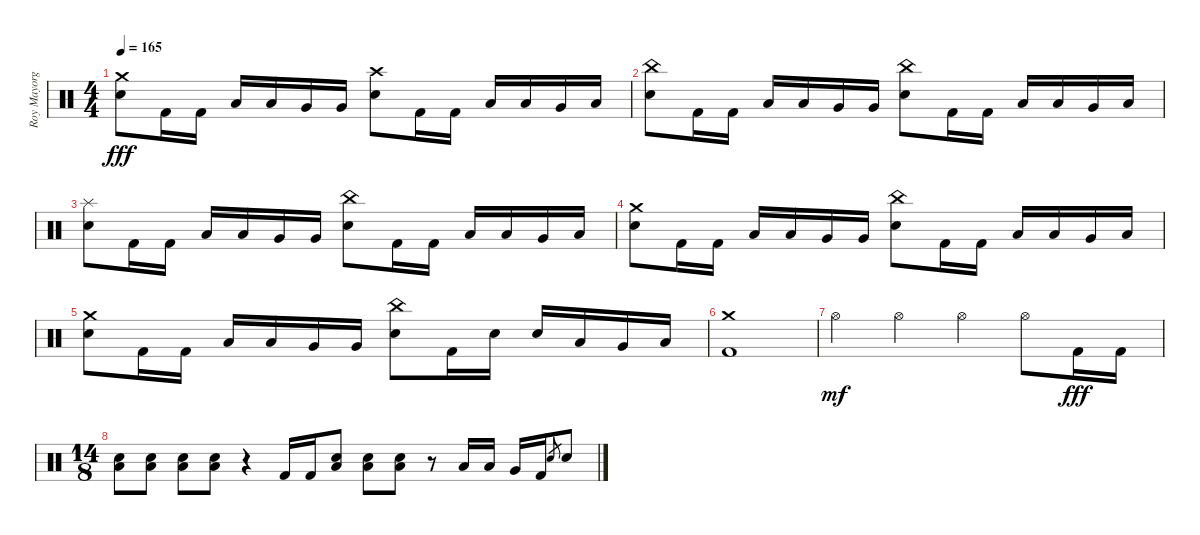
\track ("Roy Mayorga" "Roy Mayorg") {instrument percussion}
\staff {score}
\articulation defaults
\ts (4 4)
\tempo 165
\clef neutral
\ks c
("Crash medium (hit)" "Electric Snare (hit)").8{dy fff} "Kick (hit) 2".16 "Kick (hit) 2".16 "Low Tom (hit)".16 "Low Tom (hit)".16 "Very Low Tom (hit)".16 "Very Low Tom (hit)".16 ("Crash high (hit)" "Electric Snare (hit)").8 "Kick (hit) 2".16 "Kick (hit) 2".16 "Low Tom (hit)".16 "Low Tom (hit)".16 "Very Low Tom (hit)".16 "Low Floor Tom (hit)".16 |
("China (hit)" "Electric Snare (hit)").8 "Kick (hit) 2".16 "Kick (hit) 2".16 "Low Tom (hit)".16 "Low Tom (hit)".16 "Very Low Tom (hit)".16 "Very Low Tom (hit)".16 ("China (hit)" "Electric Snare (hit)").8 "Kick (hit) 2".16 "Kick (hit) 2".16 "Low Tom (hit)".16 "Low Tom (hit)".16 "Very Low Tom (hit)".16 "Low Floor Tom (hit)".16 |
("Splash (hit)" "Electric Snare (hit)").8 "Kick (hit) 2".16 "Kick (hit) 2".16 "Low Tom (hit)".16 "Low Tom (hit)".16 "Very Low Tom (hit)".16 "Very Low Tom (hit)".16 ("China (hit)" "Electric Snare (hit)").8 "Kick (hit) 2".16 "Kick (hit) 2".16 "Low Tom (hit)".16 "Low Tom (hit)".16 "Very Low Tom (hit)".16 "Low Floor Tom (hit)".16 |
("Crash medium (hit)" "Electric Snare (hit)").8 "Kick (hit) 2".16 "Kick (hit) 2".16 "Low Tom (hit)".16 "Low Tom (hit)".16 "Very Low Tom (hit)".16 "Very Low Tom (hit)".16 ("China (hit)" "Electric Snare (hit)").8 "Kick (hit) 2".16 "Kick (hit) 2".16 "Low Tom (hit)".16 "Low Tom (hit)".16 "Very Low Tom (hit)".16 "Low Floor Tom (hit)".16 |
("Crash medium (hit)" "Electric Snare (hit)").8 "Kick (hit) 2".16 "Kick (hit) 2".16 "Low Tom (hit)".16 "Low Tom (hit)".16 "Very Low Tom (hit)".16 "Very Low Tom (hit)".16 ("China (hit)" "Electric Snare (hit)").8 "Kick (hit) 2".16 "Electric Snare (hit)".16 "Electric Snare (hit)".16 "Low Tom (hit)".16 "Very Low Tom (hit)".16 "Low Floor Tom (hit)".16 |
("Crash medium (hit)" "Kick (hit) 2").1 |
"Hi-Hat (open)".4{dy mf} "Hi-Hat (open)".4 "Hi-Hat (open)".4 "Hi-Hat (open)".8 "Kick (hit) 2".16{dy fff} "Kick (hit) 2".16 |
\ts (14 8)
("Electric Snare (hit)" "Low Floor Tom (hit)").8 ("Electric Snare (hit)" "Low Floor Tom (hit)").8 ("Electric Snare (hit)" "Low Floor Tom (hit)").8 ("Electric Snare (hit)" "Low Floor Tom (hit)").8 r.4 "Kick (hit) 2".16 "Kick (hit) 2".16 ("Electric Snare (hit)" "Low Floor Tom (hit)").8 ("Electric Snare (hit)" "Low Floor Tom (hit)").8 ("Electric Snare (hit)" "Low Floor Tom (hit)").8 r.8 "Low Tom (hit)".16 "Low Tom (hit)".16 "Very Low Tom (hit)".16 "Kick (hit) 2".16 "Electric Snare (hit)".8{gr} "Electric Snare (hit)".8
